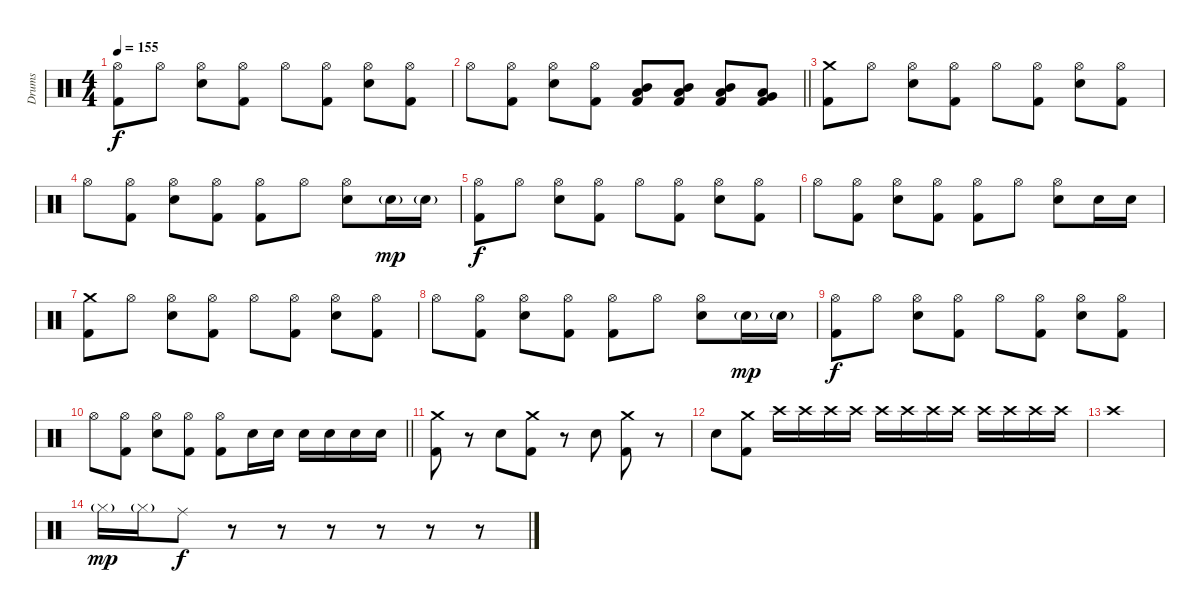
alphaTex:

\track ("Drums" "Drums") {instrument percussion}
\staff {score}
\articulation defaults
\ts (4 4)
\tempo 155
\clef neutral
\ks c
("Hi-Hat (open)" "Kick (hit) 2").8{dy f} "Hi-Hat (open)".8 ("Hi-Hat (open)" "Snare (hit) 2").8 ("Hi-Hat (open)" "Kick (hit) 2").8 "Hi-Hat (open)".8 ("Hi-Hat (open)" "Kick (hit) 2").8 ("Hi-Hat (open)" "Snare (hit) 2").8 ("Hi-Hat (open)" "Kick (hit) 2").8 |
\barLineRight lightlight "Hi-Hat (open)".8
("Hi-Hat (open)" "Kick (hit) 2").8 ("Hi-Hat (open)" "Snare (hit) 2").8 ("Hi-Hat (open)" "Kick (hit) 2").8 ("Mid Tom (hit)" "Low Tom (hit)" "Kick (hit) 2").8 ("Mid Tom (hit)" "Low Tom (hit)" "Kick (hit) 2").8 ("Mid Tom (hit)" "Low Tom (hit)" "Kick (hit) 2").8 ("Low Tom (hit)" "Very Low Tom (hit)" "Kick (hit) 2").8 |
("Crash medium (hit)" "Kick (hit) 2").8 "Hi-Hat (open)".8 ("Hi-Hat (open)" "Snare (hit) 2").8 ("Hi-Hat (open)" "Kick (hit) 2").8 "Hi-Hat (open)".8 ("Hi-Hat (open)" "Kick (hit) 2").8 ("Hi-Hat (open)" "Snare (hit) 2").8 ("Hi-Hat (open)" "Kick (hit) 2").8 |
"Hi-Hat (open)".8 ("Hi-Hat (open)" "Kick (hit) 2").8 ("Hi-Hat (open)" "Snare (hit) 2").8 ("Hi-Hat (open)" "Kick (hit) 2").8 ("Hi-Hat (open)" "Kick (hit) 2").8 "Hi-Hat (open)".8 ("Hi-Hat (open)" "Snare (hit) 2").8 "Snare (hit) 2"{g}.16{dy mp} "Snare (hit) 2"{g}.16 |
("Hi-Hat (open)" "Kick (hit) 2").8{dy f} "Hi-Hat (open)".8 ("Hi-Hat (open)" "Snare (hit) 2").8 ("Hi-Hat (open)" "Kick (hit) 2").8 "Hi-Hat (open)".8 ("Hi-Hat (open)" "Kick (hit) 2").8 ("Hi-Hat (open)" "Snare (hit) 2").8 ("Hi-Hat (open)" "Kick (hit) 2").8 |
"Hi-Hat (open)".8 ("Hi-Hat (open)" "Kick (hit) 2").8 ("Hi-Hat (open)" "Snare (hit) 2").8 ("Hi-Hat (open)" "Kick (hit) 2").8 ("Hi-Hat (open)" "Kick (hit) 2").8 "Hi-Hat (open)".8 ("Hi-Hat (open)" "Snare (hit) 2").8 "Snare (hit) 2".16 "Snare (hit) 2".16 |
("Crash medium (hit)" "Kick (hit) 2").8 "Hi-Hat (open)".8 ("Hi-Hat (open)" "Snare (hit) 2").8 ("Hi-Hat (open)" "Kick (hit) 2").8 "Hi-Hat (open)".8 ("Hi-Hat (open)" "Kick (hit) 2").8 ("Hi-Hat (open)" "Snare (hit) 2").8 ("Hi-Hat (open)" "Kick (hit) 2").8 |
"Hi-Hat (open)".8 ("Hi-Hat (open)" "Kick (hit) 2").8 ("Hi-Hat (open)" "Snare (hit) 2").8 ("Hi-Hat (open)" "Kick (hit) 2").8 ("Hi-Hat (open)" "Kick (hit) 2").8 "Hi-Hat (open)".8 ("Hi-Hat (open)" "Snare (hit) 2").8 "Snare (hit) 2"{g}.16{dy mp} "Snare (hit) 2"{g}.16 |
("Hi-Hat (open)" "Kick (hit) 2").8{dy f} "Hi-Hat (open)".8 ("Hi-Hat (open)" "Snare (hit) 2").8 ("Hi-Hat (open)" "Kick (hit) 2").8 "Hi-Hat (open)".8 ("Hi-Hat (open)" "Kick (hit) 2").8 ("Hi-Hat (open)" "Snare (hit) 2").8 ("Hi-Hat (open)" "Kick (hit) 2").8 |
\barLineRight lightlight "Hi-Hat (open)".8
("Hi-Hat (open)" "Kick (hit) 2").8 ("Hi-Hat (open)" "Snare (hit) 2").8 ("Hi-Hat (open)" "Kick (hit) 2").8 ("Hi-Hat (open)" "Kick (hit) 2").8 "Snare (hit) 2".16 "Snare (hit) 2".16 "Snare (hit) 2".16 "Snare (hit) 2".16 "Snare (hit) 2".16 "Snare (hit) 2".16 |
("Crash medium (hit)" "Kick (hit) 2").8 r.8 "Snare (hit) 2".8 ("Crash medium (hit)" "Kick (hit) 2").8 r.8 "Snare (hit) 2".8 ("Crash medium (hit)" "Kick (hit) 2").8 r.8 |
"Snare (hit) 2".8 ("Crash medium (hit)" "Kick (hit) 2").8 "Crash high (hit)".16 "Crash high (hit)".16 "Crash high (hit)".16 "Crash high (hit)".16 "Crash high (hit)".16 "Crash high (hit)".16 "Crash high (hit)".16 "Crash high (hit)".16 "Crash high (hit)".16 "Crash high (hit)".16 "Crash high (hit)".16 "Crash high (hit)".16 |
"Crash high (hit)".1 |
"Hi-Hat (closed)"{g}.16{dy mp} "Hi-Hat (closed)"{g}.16 "Ride (middle)".8{dy f} r.8 r.8 r.8 r.8 r.8 r.8
